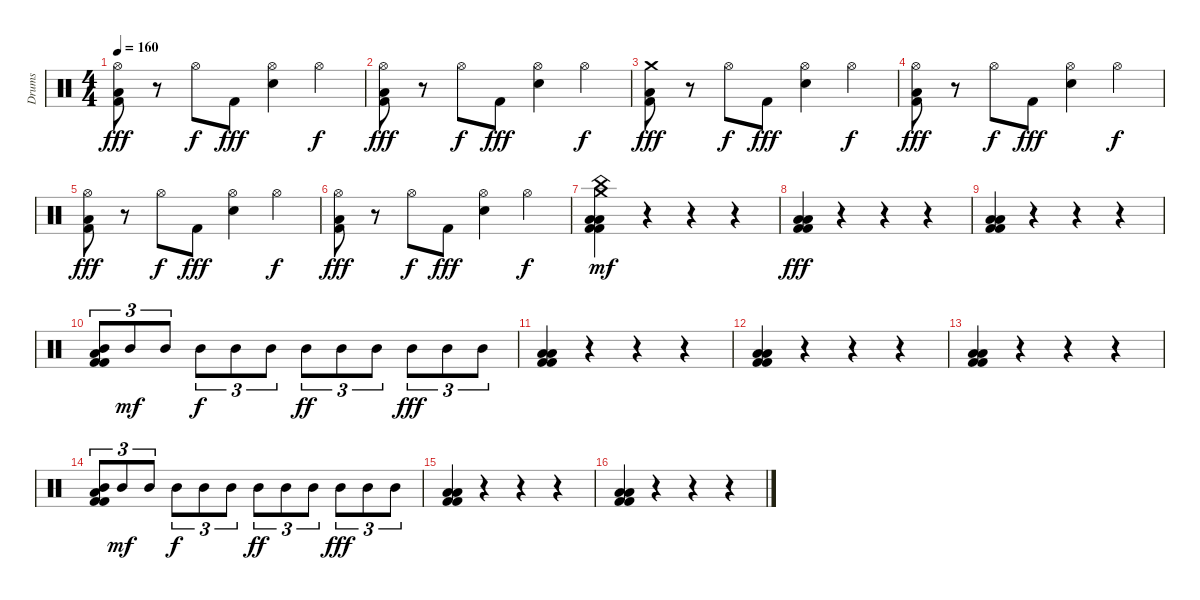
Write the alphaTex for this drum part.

\track ("Drums" "Drums") {instrument percussion}
\staff {score}
\articulation defaults
\ts (4 4)
\tempo 160
\clef neutral
\ks c
("Hi-Hat (open)" "Kick (hit) 2" "Low Tom (hit)").8{dy fff} r.8 "Hi-Hat (open)".8{dy f} "Kick (hit) 2".8{dy fff} ("Hi-Hat (open)" "Electric Snare (hit)").4 "Hi-Hat (open)".4{dy f} |
("Hi-Hat (open)" "Kick (hit) 2" "Low Tom (hit)").8{dy fff} r.8 "Hi-Hat (open)".8{dy f} "Kick (hit) 2".8{dy fff} ("Hi-Hat (open)" "Electric Snare (hit)").4 "Hi-Hat (open)".4{dy f} |
("Crash medium (hit)" "Kick (hit) 2" "Low Tom (hit)").8{dy fff} r.8 "Hi-Hat (open)".8{dy f} "Kick (hit) 2".8{dy fff} ("Hi-Hat (open)" "Electric Snare (hit)").4 "Hi-Hat (open)".4{dy f} |
("Hi-Hat (open)" "Kick (hit) 2" "Low Tom (hit)").8{dy fff} r.8 "Hi-Hat (open)".8{dy f} "Kick (hit) 2".8{dy fff} ("Hi-Hat (open)" "Electric Snare (hit)").4 "Hi-Hat (open)".4{dy f} |
("Hi-Hat (open)" "Kick (hit) 2" "Low Tom (hit)").8{dy fff} r.8 "Hi-Hat (open)".8{dy f} "Kick (hit) 2".8{dy fff} ("Hi-Hat (open)" "Electric Snare (hit)").4 "Hi-Hat (open)".4{dy f} |
("Hi-Hat (open)" "Kick (hit) 2" "Low Tom (hit)").8{dy fff} r.8 "Hi-Hat (open)".8{dy f} "Kick (hit) 2".8{dy fff} ("Hi-Hat (open)" "Electric Snare (hit)").4 "Hi-Hat (open)".4{dy f} |
("Low Tom (hit)" "Kick (hit) 2" "Kick (hit) 2" "Low Tom (hit)" "Crash medium (hit)" "China (hit)").4{dy mf} r.4 r.4 r.4 |
("Low Tom (hit)" "Kick (hit) 2" "Kick (hit) 2" "Low Tom (hit)").4{dy fff} r.4 r.4 r.4 |
("Low Tom (hit)" "Kick (hit) 2" "Kick (hit) 2" "Low Tom (hit)").4 r.4 r.4 r.4 |
("Mid Tom (hit)" "Low Tom (hit)" "Kick (hit) 2" "Kick (hit) 2").8{tu (3 2)} "Mid Tom (hit)".8{tu (3 2) dy mf} "Mid Tom (hit)".8{tu (3 2)} "Mid Tom (hit)".8{tu (3 2) dy f} "Mid Tom (hit)".8{tu (3 2)} "Mid Tom (hit)".8{tu (3 2)} "Mid Tom (hit)".8{tu (3 2) dy ff} "Mid Tom (hit)".8{tu (3 2)} "Mid Tom (hit)".8{tu (3 2)} "Mid Tom (hit)".8{tu (3 2) dy fff} "Mid Tom (hit)".8{tu (3 2)} "Mid Tom (hit)".8{tu (3 2)} |
("Low Tom (hit)" "Kick (hit) 2" "Kick (hit) 2" "Low Tom (hit)").4 r.4 r.4 r.4 |
("Low Tom (hit)" "Kick (hit) 2" "Kick (hit) 2" "Low Tom (hit)").4 r.4 r.4 r.4 |
("Low Tom (hit)" "Kick (hit) 2" "Kick (hit) 2" "Low Tom (hit)").4 r.4 r.4 r.4 |
("Mid Tom (hit)" "Low Tom (hit)" "Kick (hit) 2" "Kick (hit) 2").8{tu (3 2)} "Mid Tom (hit)".8{tu (3 2) dy mf} "Mid Tom (hit)".8{tu (3 2)} "Mid Tom (hit)".8{tu (3 2) dy f} "Mid Tom (hit)".8{tu (3 2)} "Mid Tom (hit)".8{tu (3 2)} "Mid Tom (hit)".8{tu (3 2) dy ff} "Mid Tom (hit)".8{tu (3 2)} "Mid Tom (hit)".8{tu (3 2)} "Mid Tom (hit)".8{tu (3 2) dy fff} "Mid Tom (hit)".8{tu (3 2)} "Mid Tom (hit)".8{tu (3 2)} |
("Low Tom (hit)" "Kick (hit) 2" "Kick (hit) 2" "Low Tom (hit)").4 r.4 r.4 r.4 |
("Low Tom (hit)" "Kick (hit) 2" "Kick (hit) 2" "Low Tom (hit)").4 r.4 r.4 r.4
